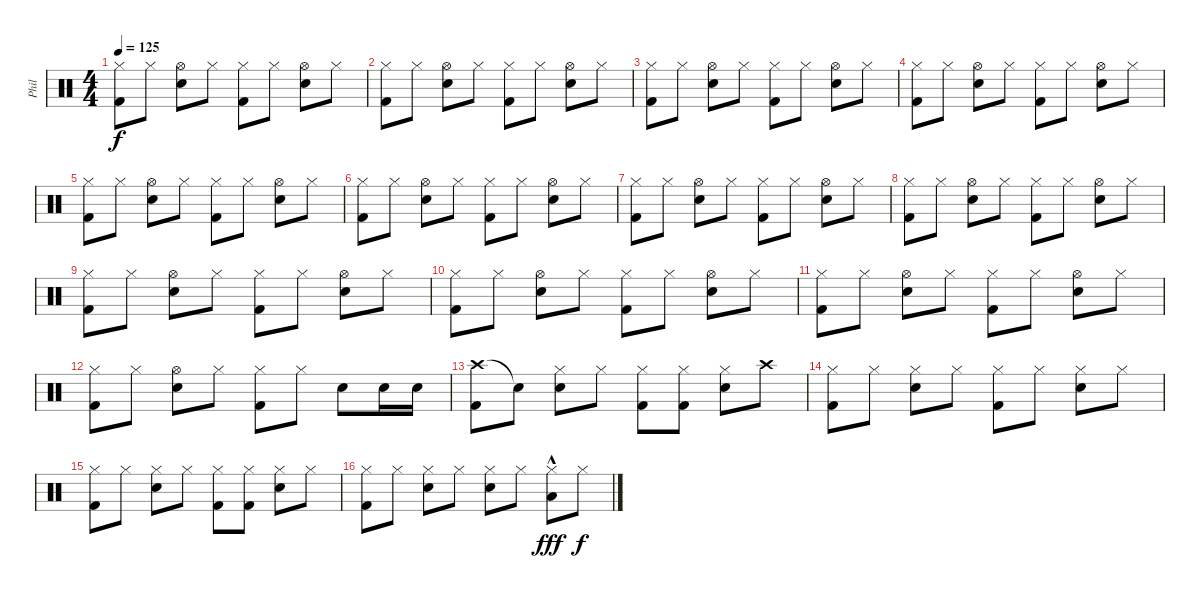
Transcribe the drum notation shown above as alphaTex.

\track ("Phil" "Phil") {instrument percussion}
\staff {score}
\articulation defaults
\ts (4 4)
\tempo 125
\clef neutral
\ks c
("Hi-Hat (closed)" "Kick (hit) 2").8{dy f} "Hi-Hat (closed)".8 ("Hi-Hat (open)" "Snare (hit) 2").8 "Hi-Hat (closed)".8 ("Hi-Hat (closed)" "Kick (hit) 2").8 "Hi-Hat (closed)".8 ("Hi-Hat (open)" "Snare (hit) 2").8 "Hi-Hat (closed)".8 |
("Hi-Hat (closed)" "Kick (hit) 2").8 "Hi-Hat (closed)".8 ("Hi-Hat (open)" "Snare (hit) 2").8 "Hi-Hat (closed)".8 ("Hi-Hat (closed)" "Kick (hit) 2").8 "Hi-Hat (closed)".8 ("Hi-Hat (open)" "Snare (hit) 2").8 "Hi-Hat (closed)".8 |
("Hi-Hat (closed)" "Kick (hit) 2").8 "Hi-Hat (closed)".8 ("Hi-Hat (open)" "Snare (hit) 2").8 "Hi-Hat (closed)".8 ("Hi-Hat (closed)" "Kick (hit) 2").8 "Hi-Hat (closed)".8 ("Hi-Hat (open)" "Snare (hit) 2").8 "Hi-Hat (closed)".8 |
("Hi-Hat (closed)" "Kick (hit) 2").8 "Hi-Hat (closed)".8 ("Hi-Hat (open)" "Snare (hit) 2").8 "Hi-Hat (closed)".8 ("Hi-Hat (closed)" "Kick (hit) 2").8 "Hi-Hat (closed)".8 ("Hi-Hat (open)" "Snare (hit) 2").8 "Hi-Hat (closed)".8 |
("Hi-Hat (closed)" "Kick (hit) 2").8 "Hi-Hat (closed)".8 ("Hi-Hat (open)" "Snare (hit) 2").8 "Hi-Hat (closed)".8 ("Hi-Hat (closed)" "Kick (hit) 2").8 "Hi-Hat (closed)".8 ("Hi-Hat (open)" "Snare (hit) 2").8 "Hi-Hat (closed)".8 |
("Hi-Hat (closed)" "Kick (hit) 2").8 "Hi-Hat (closed)".8 ("Hi-Hat (open)" "Snare (hit) 2").8 "Hi-Hat (closed)".8 ("Hi-Hat (closed)" "Kick (hit) 2").8 "Hi-Hat (closed)".8 ("Hi-Hat (open)" "Snare (hit) 2").8 "Hi-Hat (closed)".8 |
("Hi-Hat (closed)" "Kick (hit) 2").8 "Hi-Hat (closed)".8 ("Hi-Hat (open)" "Snare (hit) 2").8 "Hi-Hat (closed)".8 ("Hi-Hat (closed)" "Kick (hit) 2").8 "Hi-Hat (closed)".8 ("Hi-Hat (open)" "Snare (hit) 2").8 "Hi-Hat (closed)".8 |
("Hi-Hat (closed)" "Kick (hit) 2").8 "Hi-Hat (closed)".8 ("Hi-Hat (open)" "Snare (hit) 2").8 "Hi-Hat (closed)".8 ("Hi-Hat (closed)" "Kick (hit) 2").8 "Hi-Hat (closed)".8 ("Hi-Hat (open)" "Snare (hit) 2").8 "Hi-Hat (closed)".8 |
("Hi-Hat (closed)" "Kick (hit) 2").8 "Hi-Hat (closed)".8 ("Hi-Hat (open)" "Snare (hit) 2").8 "Hi-Hat (closed)".8 ("Hi-Hat (closed)" "Kick (hit) 2").8 "Hi-Hat (closed)".8 ("Hi-Hat (open)" "Snare (hit) 2").8 "Hi-Hat (closed)".8 |
("Hi-Hat (closed)" "Kick (hit) 2").8 "Hi-Hat (closed)".8 ("Hi-Hat (open)" "Snare (hit) 2").8 "Hi-Hat (closed)".8 ("Hi-Hat (closed)" "Kick (hit) 2").8 "Hi-Hat (closed)".8 ("Hi-Hat (open)" "Snare (hit) 2").8 "Hi-Hat (closed)".8 |
("Hi-Hat (closed)" "Kick (hit) 2").8 "Hi-Hat (closed)".8 ("Hi-Hat (open)" "Snare (hit) 2").8 "Hi-Hat (closed)".8 ("Hi-Hat (closed)" "Kick (hit) 2").8 "Hi-Hat (closed)".8 ("Hi-Hat (open)" "Snare (hit) 2").8 "Hi-Hat (closed)".8 |
("Hi-Hat (closed)" "Kick (hit) 2").8 "Hi-Hat (closed)".8 ("Hi-Hat (open)" "Snare (hit) 2").8 "Hi-Hat (closed)".8 ("Hi-Hat (closed)" "Kick (hit) 2").8 "Hi-Hat (closed)".8 "Snare (hit) 2".8 "Snare (hit) 2".16 "Snare (hit) 2".16 |
("Crash high (hit)" "Kick (hit) 2").8 "Snare (hit)"{t}.8 ("Hi-Hat (closed)" "Snare (hit) 2").8 "Hi-Hat (closed)".8 ("Hi-Hat (closed)" "Kick (hit) 2").8 ("Hi-Hat (closed)" "Kick (hit) 2").8 ("Hi-Hat (closed)" "Snare (hit) 2").8 "Crash high (hit)".8 |
("Hi-Hat (closed)" "Kick (hit) 2").8 "Hi-Hat (closed)".8 ("Hi-Hat (closed)" "Snare (hit) 2").8 "Hi-Hat (closed)".8 ("Hi-Hat (closed)" "Kick (hit) 2").8 "Hi-Hat (closed)".8 ("Hi-Hat (closed)" "Snare (hit) 2").8 "Hi-Hat (closed)".8 |
("Hi-Hat (closed)" "Kick (hit) 2").8 "Hi-Hat (closed)".8 ("Hi-Hat (closed)" "Snare (hit) 2").8 "Hi-Hat (closed)".8 ("Hi-Hat (closed)" "Kick (hit) 2").8 ("Hi-Hat (closed)" "Kick (hit) 2").8 ("Hi-Hat (closed)" "Snare (hit) 2").8 "Hi-Hat (closed)".8 |
("Hi-Hat (closed)" "Kick (hit) 2").8 "Hi-Hat (closed)".8 ("Hi-Hat (closed)" "Snare (hit) 2").8 "Hi-Hat (closed)".8 ("Hi-Hat (closed)" "Snare (hit) 2").8 "Hi-Hat (closed)".8 ("Hi-Hat (closed)" "Low Tom (hit)"{hac}).8{dy fff} "Hi-Hat (closed)".8{dy f}
